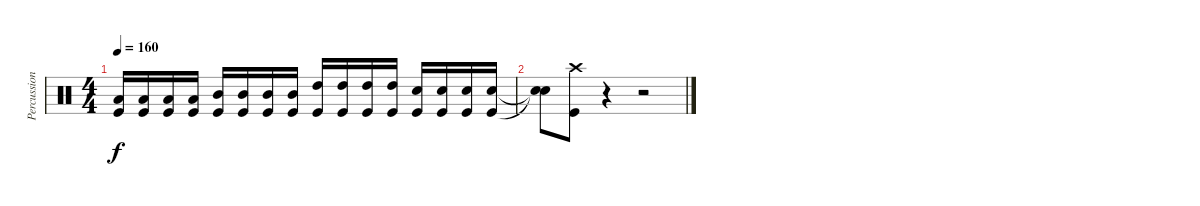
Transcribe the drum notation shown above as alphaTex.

\track ("Percussioni" "Percussion") {instrument percussion}
\staff {score}
\articulation defaults
\ts (4 4)
\tempo 160
\clef neutral
\ks c
("Low Tom (hit)" "Kick (hit)").16{dy f} ("Low Tom (hit)" "Kick (hit)").16 ("Low Tom (hit)" "Kick (hit)").16 ("Low Tom (hit)" "Kick (hit)").16 ("Mid Tom (hit)" "Kick (hit)").16 ("Mid Tom (hit)" "Kick (hit)").16 ("Mid Tom (hit)" "Kick (hit)").16 ("Mid Tom (hit)" "Kick (hit)").16 ("High Tom (hit)" "Kick (hit)").16 ("High Tom (hit)" "Kick (hit)").16 ("High Tom (hit)" "Kick (hit)").16 ("High Tom (hit)" "Kick (hit)").16 ("Snare (hit) 2" "Kick (hit)").16 ("Snare (hit) 2" "Kick (hit)").16 ("Snare (hit) 2" "Kick (hit)").16 ("Snare (hit) 2" "Kick (hit)").16 |
("Snare (hit)"{t} "Snare (hit)"{t}).8 ("Crash high (hit)" "Kick (hit)").8 r.4 r.2
